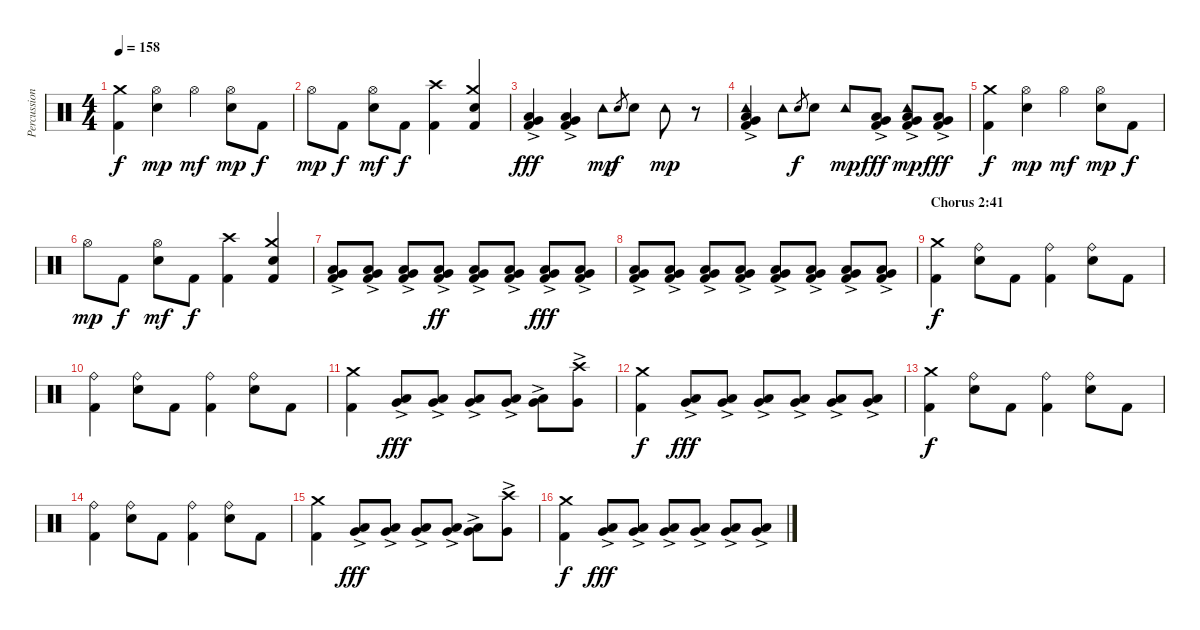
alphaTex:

\track ("Percussion" "Percussion") {instrument percussion}
\staff {score}
\articulation defaults
\ts (4 4)
\tempo 158
\clef neutral
\ks c
("Kick (hit) 2" "Crash medium (hit)").4{dy f} ("Electric Snare (hit)" "Hi-Hat (open)").4{dy mp} "Hi-Hat (open)".4{dy mf} ("Electric Snare (hit)" "Hi-Hat (open)").8{dy mp} "Kick (hit) 2".8{dy f} |
"Hi-Hat (open)".8{dy mp} "Kick (hit) 2".8{dy f} ("Electric Snare (hit)" "Hi-Hat (open)").8{dy mf} "Kick (hit) 2".8{dy f} ("Kick (hit) 2" "Crash high (hit)").4 ("Kick (hit) 2" "Electric Snare (hit)" "Crash medium (hit)").4 |
("Kick (hit) 2" "Very Low Tom (hit)"{ac} "Low Tom (hit)"{ac}).4{dy fff} ("Kick (hit) 2" "Very Low Tom (hit)"{ac} "Low Floor Tom (hit)"{ac}).4 "Tambourine (hit)".8{dy mp} "Electric Snare (hit)".8{gr dy f} "Electric Snare (hit)".8 "Tambourine (hit)".8{dy mp} r.8 |
("Kick (hit) 2" "Very Low Tom (hit)"{ac} "Low Tom (hit)"{ac} "Tambourine (hit)").4 "Tambourine (hit)".8 "Electric Snare (hit)".8{gr dy f} "Electric Snare (hit)".8 "Tambourine (hit)".8{dy mp} ("Kick (hit) 2" "Very Low Tom (hit)"{ac} "Low Floor Tom (hit)"{ac}).8{dy fff} ("Kick (hit) 2" "Very Low Tom (hit)"{ac} "Low Tom (hit)"{ac} "Tambourine (hit)").8{dy mp} ("Kick (hit) 2" "Very Low Tom (hit)"{ac} "Low Tom (hit)"{ac}).8{dy fff} |
("Kick (hit) 2" "Crash medium (hit)").4{dy f} ("Electric Snare (hit)" "Hi-Hat (open)").4{dy mp} "Hi-Hat (open)".4{dy mf} ("Electric Snare (hit)" "Hi-Hat (open)").8{dy mp} "Kick (hit) 2".8{dy f} |
"Hi-Hat (open)".8{dy mp} "Kick (hit) 2".8{dy f} ("Electric Snare (hit)" "Hi-Hat (open)").8{dy mf} "Kick (hit) 2".8{dy f} ("Kick (hit) 2" "Crash high (hit)").4 ("Kick (hit) 2" "Electric Snare (hit)" "Crash medium (hit)").4 |
("Kick (hit) 2" "Low Tom (hit)"{ac} "Very Low Tom (hit)"{ac}).8 ("Kick (hit) 2" "Low Tom (hit)"{ac} "Very Low Tom (hit)"{ac}).8 ("Kick (hit) 2" "Low Tom (hit)"{ac} "Very Low Tom (hit)"{ac}).8 ("Kick (hit) 2" "Low Tom (hit)"{ac} "Very Low Tom (hit)"{ac}).8{dy ff} ("Kick (hit) 2" "Low Tom (hit)"{ac} "Very Low Tom (hit)"{ac}).8 ("Kick (hit) 2" "Low Tom (hit)"{ac} "Very Low Tom (hit)"{ac}).8 ("Kick (hit) 2" "Low Tom (hit)"{ac} "Very Low Tom (hit)"{ac}).8{dy fff} ("Kick (hit) 2" "Low Tom (hit)"{ac} "Very Low Tom (hit)"{ac}).8 |
("Kick (hit) 2" "Low Tom (hit)"{ac} "Very Low Tom (hit)"{ac}).8 ("Kick (hit) 2" "Low Tom (hit)"{ac} "Very Low Tom (hit)"{ac}).8 ("Kick (hit) 2" "Low Tom (hit)"{ac} "Very Low Tom (hit)"{ac}).8 ("Kick (hit) 2" "Low Tom (hit)"{ac} "Very Low Tom (hit)"{ac}).8 ("Kick (hit) 2" "Low Tom (hit)"{ac} "Very Low Tom (hit)"{ac}).8 ("Kick (hit) 2" "Low Tom (hit)"{ac} "Very Low Tom (hit)"{ac}).8 ("Kick (hit) 2" "Low Tom (hit)"{ac} "Very Low Tom (hit)"{ac}).8 ("Kick (hit) 2" "Low Tom (hit)"{ac} "Very Low Tom (hit)"{ac}).8 |
\section ("" "Chorus 2:41")
("Kick (hit) 2" "Crash medium (hit)").4{dy f} ("Electric Snare (hit)" "Ride (bell)").8 "Kick (hit) 2".8 ("Kick (hit) 2" "Ride (bell)").4 ("Electric Snare (hit)" "Ride (bell)").8 "Kick (hit) 2".8 |
("Kick (hit) 2" "Ride (bell)").4 ("Electric Snare (hit)" "Ride (bell)").8 "Kick (hit) 2".8 ("Kick (hit) 2" "Ride (bell)").4 ("Electric Snare (hit)" "Ride (bell)").8 "Kick (hit) 2".8 |
("Kick (hit) 2" "Crash medium (hit)").4 ("Low Tom (hit)"{ac} "Very Low Tom (hit)"{ac}).8{dy fff} ("Low Tom (hit)"{ac} "Very Low Tom (hit)"{ac}).8 ("Low Tom (hit)"{ac} "Very Low Tom (hit)"{ac}).8 ("Low Tom (hit)"{ac} "Very Low Tom (hit)"{ac}).8 ("Low Tom (hit)"{ac} "Very Low Tom (hit)"{ac}).8 ("Very Low Tom (hit)"{ac} "Crash high (hit)").8 |
("Kick (hit) 2" "Crash medium (hit)").4{dy f} ("Low Tom (hit)"{ac} "Very Low Tom (hit)"{ac}).8{dy fff} ("Low Tom (hit)"{ac} "Very Low Tom (hit)"{ac}).8 ("Low Tom (hit)"{ac} "Very Low Tom (hit)"{ac}).8 ("Low Tom (hit)"{ac} "Very Low Tom (hit)"{ac}).8 ("Low Tom (hit)"{ac} "Very Low Tom (hit)"{ac}).8 ("Low Tom (hit)"{ac} "Very Low Tom (hit)"{ac}).8 |
("Kick (hit) 2" "Crash medium (hit)").4{dy f} ("Electric Snare (hit)" "Ride (bell)").8 "Kick (hit) 2".8 ("Kick (hit) 2" "Ride (bell)").4 ("Electric Snare (hit)" "Ride (bell)").8 "Kick (hit) 2".8 |
("Kick (hit) 2" "Ride (bell)").4 ("Electric Snare (hit)" "Ride (bell)").8 "Kick (hit) 2".8 ("Kick (hit) 2" "Ride (bell)").4 ("Electric Snare (hit)" "Ride (bell)").8 "Kick (hit) 2".8 |
("Kick (hit) 2" "Crash medium (hit)").4 ("Low Tom (hit)"{ac} "Very Low Tom (hit)"{ac}).8{dy fff} ("Low Tom (hit)"{ac} "Very Low Tom (hit)"{ac}).8 ("Low Tom (hit)"{ac} "Very Low Tom (hit)"{ac}).8 ("Low Tom (hit)"{ac} "Very Low Tom (hit)"{ac}).8 ("Low Tom (hit)"{ac} "Very Low Tom (hit)"{ac}).8 ("Very Low Tom (hit)"{ac} "Crash high (hit)").8 |
("Kick (hit) 2" "Crash medium (hit)").4{dy f} ("Low Tom (hit)"{ac} "Very Low Tom (hit)"{ac}).8{dy fff} ("Low Tom (hit)"{ac} "Very Low Tom (hit)"{ac}).8 ("Low Tom (hit)"{ac} "Very Low Tom (hit)"{ac}).8 ("Low Tom (hit)"{ac} "Very Low Tom (hit)"{ac}).8 ("Low Tom (hit)"{ac} "Very Low Tom (hit)"{ac}).8 ("Low Tom (hit)"{ac} "Very Low Tom (hit)"{ac}).8
